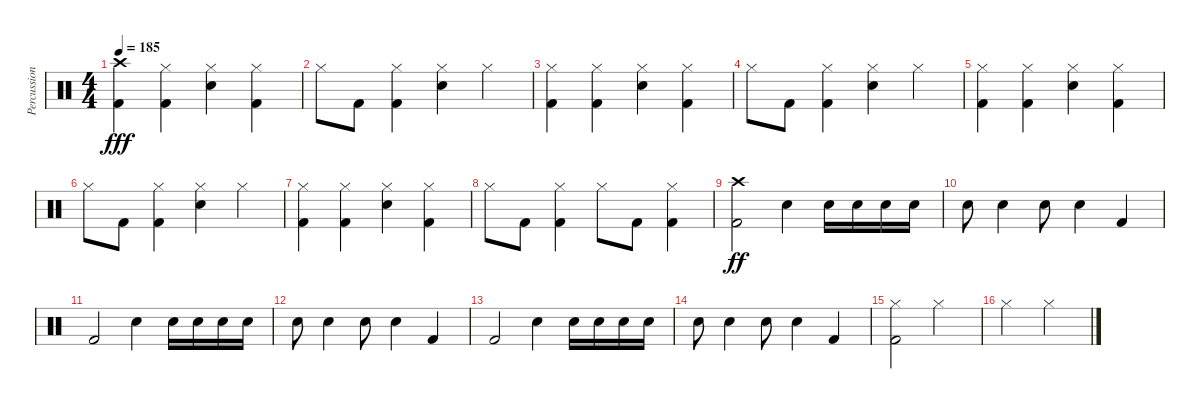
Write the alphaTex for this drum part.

\track ("Percussion" "Percussion") {instrument percussion}
\staff {score}
\articulation defaults
\ts (4 4)
\tempo 185
\clef neutral
\ks c
("Crash high (hit)" "Kick (hit) 2").4{dy fff} ("Hi-Hat (closed)" "Kick (hit) 2").4 ("Hi-Hat (closed)" "Electric Snare (hit)").4 ("Hi-Hat (closed)" "Kick (hit) 2").4 |
"Hi-Hat (closed)".8 "Kick (hit) 2".8 ("Hi-Hat (closed)" "Kick (hit) 2").4 ("Hi-Hat (closed)" "Electric Snare (hit)").4 "Hi-Hat (closed)".4 |
("Hi-Hat (closed)" "Kick (hit) 2").4 ("Hi-Hat (closed)" "Kick (hit) 2").4 ("Hi-Hat (closed)" "Electric Snare (hit)").4 ("Hi-Hat (closed)" "Kick (hit) 2").4 |
"Hi-Hat (closed)".8 "Kick (hit) 2".8 ("Hi-Hat (closed)" "Kick (hit) 2").4 ("Hi-Hat (closed)" "Electric Snare (hit)").4 "Hi-Hat (closed)".4 |
("Hi-Hat (closed)" "Kick (hit) 2").4 ("Hi-Hat (closed)" "Kick (hit) 2").4 ("Hi-Hat (closed)" "Electric Snare (hit)").4 ("Hi-Hat (closed)" "Kick (hit) 2").4 |
"Hi-Hat (closed)".8 "Kick (hit) 2".8 ("Hi-Hat (closed)" "Kick (hit) 2").4 ("Hi-Hat (closed)" "Electric Snare (hit)").4 "Hi-Hat (closed)".4 |
("Hi-Hat (closed)" "Kick (hit) 2").4 ("Hi-Hat (closed)" "Kick (hit) 2").4 ("Hi-Hat (closed)" "Electric Snare (hit)").4 ("Hi-Hat (closed)" "Kick (hit) 2").4 |
"Hi-Hat (closed)".8 "Kick (hit) 2".8 ("Hi-Hat (closed)" "Kick (hit) 2").4 "Hi-Hat (closed)".8 "Kick (hit) 2".8 ("Hi-Hat (closed)" "Kick (hit) 2").4 |
("Kick (hit) 2" "Crash high (hit)").2{bd 480 dy ff} "Electric Snare (hit)".4 "Electric Snare (hit)".16 "Electric Snare (hit)".16 "Electric Snare (hit)".16 "Electric Snare (hit)".16 |
"Electric Snare (hit)".8 "Electric Snare (hit)".4 "Electric Snare (hit)".8 "Electric Snare (hit)".4 "Kick (hit) 2".4 |
"Kick (hit) 2".2 "Electric Snare (hit)".4 "Electric Snare (hit)".16 "Electric Snare (hit)".16 "Electric Snare (hit)".16 "Electric Snare (hit)".16 |
"Electric Snare (hit)".8 "Electric Snare (hit)".4 "Electric Snare (hit)".8 "Electric Snare (hit)".4 "Kick (hit) 2".4 |
"Kick (hit) 2".2 "Electric Snare (hit)".4 "Electric Snare (hit)".16 "Electric Snare (hit)".16 "Electric Snare (hit)".16 "Electric Snare (hit)".16 |
"Electric Snare (hit)".8 "Electric Snare (hit)".4 "Electric Snare (hit)".8 "Electric Snare (hit)".4 "Kick (hit) 2".4 |
("Hi-Hat (closed)" "Kick (hit) 2").2 "Hi-Hat (closed)".2 |
"Hi-Hat (closed)".2 "Hi-Hat (closed)".2
